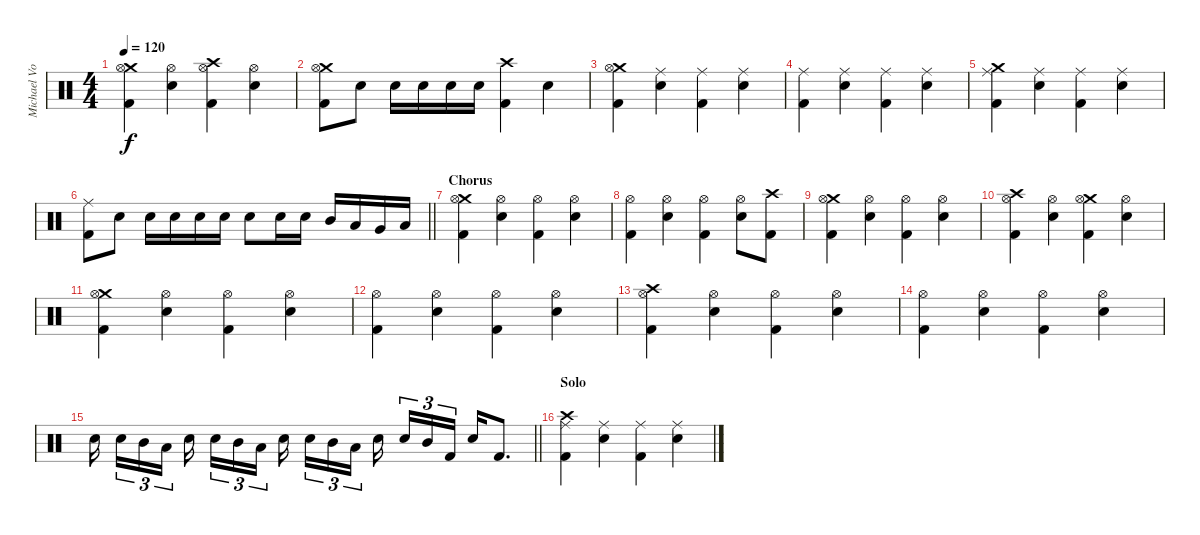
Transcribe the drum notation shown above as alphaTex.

\track ("Michael Von Knorring" "Michael Vo") {instrument percussion}
\staff {score}
\articulation defaults
\ts (4 4)
\tempo 120
\clef neutral
\ks c
("Crash medium (hit)" "Hi-Hat (open)" "Kick (hit) 2").4{dy f} ("Hi-Hat (open)" "Snare (hit) 2").4 ("Crash high (hit)" "Hi-Hat (open)" "Kick (hit) 2").4 ("Hi-Hat (open)" "Snare (hit) 2").4 |
("Crash medium (hit)" "Hi-Hat (open)" "Kick (hit) 2").8 "Snare (hit) 2".8 "Snare (hit) 2".16 "Snare (hit) 2".16 "Snare (hit) 2".16 "Snare (hit) 2".16 ("Crash high (hit)" "Kick (hit) 2").4 "Snare (hit) 2".4 |
("Crash medium (hit)" "Hi-Hat (open)" "Kick (hit) 2").4 ("Ride (middle)" "Snare (hit) 2").4 ("Ride (middle)" "Kick (hit) 2").4 ("Ride (middle)" "Snare (hit) 2").4 |
("Ride (middle)" "Kick (hit) 2").4 ("Ride (middle)" "Snare (hit) 2").4 ("Ride (middle)" "Kick (hit) 2").4 ("Ride (middle)" "Snare (hit) 2").4 |
("Crash medium (hit)" "Ride (middle)" "Kick (hit) 2").4 ("Ride (middle)" "Snare (hit) 2").4 ("Ride (middle)" "Kick (hit) 2").4 ("Ride (middle)" "Snare (hit) 2").4 |
\barLineRight lightlight
("Ride (middle)" "Kick (hit) 2").8 "Snare (hit) 2".8 "Snare (hit) 2".16 "Snare (hit) 2".16 "Snare (hit) 2".16 "Snare (hit) 2".16 "Snare (hit) 2".8 "Snare (hit) 2".16 "Snare (hit) 2".16 "Mid Tom (hit)".16 "Low Tom (hit)".16 "Very Low Tom (hit)".16 "Low Floor Tom (hit)".16 |
\section ("" "Chorus")
("Crash medium (hit)" "Hi-Hat (open)" "Kick (hit) 2").4 ("Hi-Hat (open)" "Snare (hit) 2").4 ("Hi-Hat (open)" "Kick (hit) 2").4 ("Hi-Hat (open)" "Snare (hit) 2").4 |
("Hi-Hat (open)" "Kick (hit) 2").4 ("Hi-Hat (open)" "Snare (hit) 2").4 ("Hi-Hat (open)" "Kick (hit) 2").4 ("Hi-Hat (open)" "Snare (hit) 2").8 ("Crash high (hit)" "Kick (hit) 2").8 |
("Crash medium (hit)" "Hi-Hat (open)" "Kick (hit) 2").4 ("Hi-Hat (open)" "Snare (hit) 2").4 ("Hi-Hat (open)" "Kick (hit) 2").4 ("Hi-Hat (open)" "Snare (hit) 2").4 |
("Crash high (hit)" "Hi-Hat (open)" "Kick (hit) 2").4 ("Hi-Hat (open)" "Snare (hit) 2").4 ("Crash medium (hit)" "Hi-Hat (open)" "Kick (hit) 2").4 ("Hi-Hat (open)" "Snare (hit) 2").4 |
("Crash medium (hit)" "Hi-Hat (open)" "Kick (hit) 2").4 ("Hi-Hat (open)" "Snare (hit) 2").4 ("Hi-Hat (open)" "Kick (hit) 2").4 ("Hi-Hat (open)" "Snare (hit) 2").4 |
("Hi-Hat (open)" "Kick (hit) 2").4 ("Hi-Hat (open)" "Snare (hit) 2").4 ("Hi-Hat (open)" "Kick (hit) 2").4 ("Hi-Hat (open)" "Snare (hit) 2").4 |
("Crash high (hit)" "Hi-Hat (open)" "Kick (hit) 2").4 ("Hi-Hat (open)" "Snare (hit) 2").4 ("Hi-Hat (open)" "Kick (hit) 2").4 ("Hi-Hat (open)" "Snare (hit) 2").4 |
("Hi-Hat (open)" "Kick (hit) 2").4 ("Hi-Hat (open)" "Snare (hit) 2").4 ("Hi-Hat (open)" "Kick (hit) 2").4 ("Hi-Hat (open)" "Snare (hit) 2").4 |
\barLineRight lightlight "Snare (hit) 2".16{beam splitsecondary} "Snare (hit) 2".16{tu (3 2)} "Mid Tom (hit)".16{tu (3 2)} "Low Tom (hit)".16{tu (3 2) beam splitsecondary} "Snare (hit) 2".16 "Snare (hit) 2".16{tu (3 2)} "Mid Tom (hit)".16{tu (3 2)} "Low Tom (hit)".16{tu (3 2) beam splitsecondary} "Snare (hit) 2".16{beam splitsecondary} "Snare (hit) 2".16{tu (3 2)} "Mid Tom (hit)".16{tu (3 2)} "Low Tom (hit)".16{tu (3 2) beam splitsecondary} "Snare (hit) 2".16{beam splitsecondary} "Snare (hit) 2".16{tu (3 2)} "Mid Tom (hit)".16{tu (3 2)} "Kick (hit) 2".16{tu (3 2)} "Snare (hit) 2".16 "Kick (hit) 2".8{d}
|
\section ("" "Solo")
("Crash high (hit)" "Ride (middle)" "Kick (hit) 2").4 ("Ride (middle)" "Snare (hit) 2").4 ("Ride (middle)" "Kick (hit) 2").4 ("Ride (middle)" "Snare (hit) 2").4
